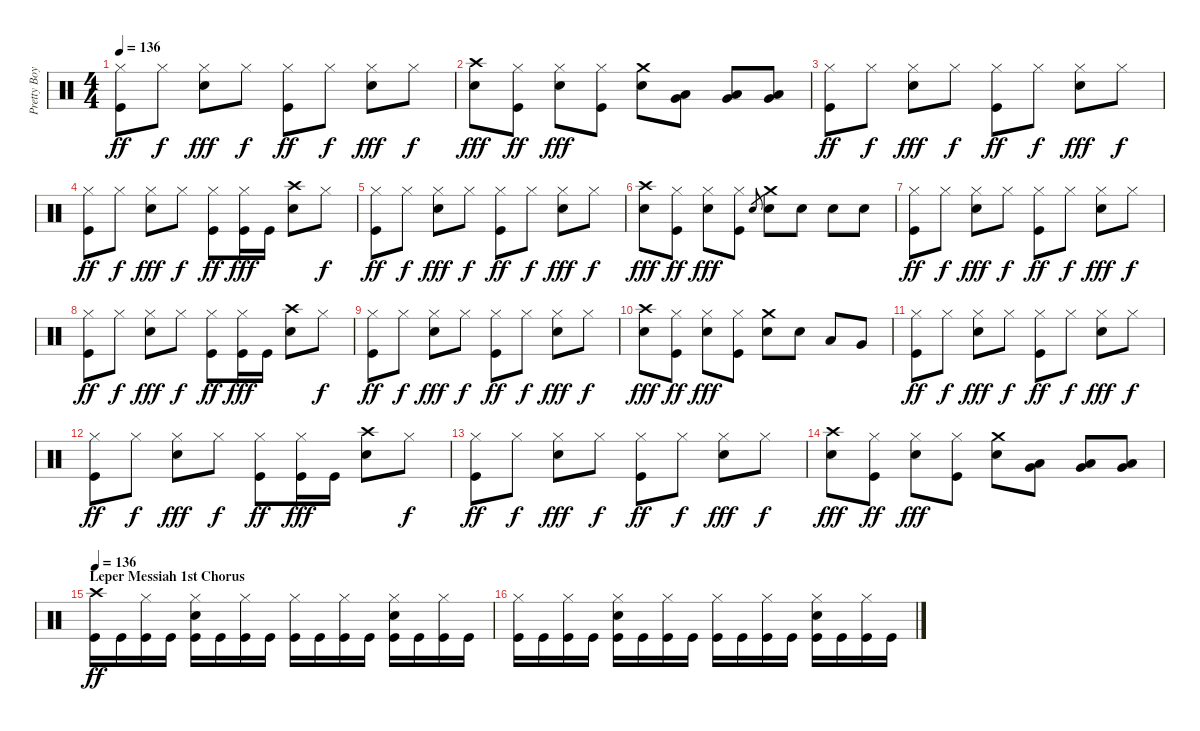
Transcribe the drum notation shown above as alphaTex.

\track ("Pretty Boy Geoff (Lars Drums)" "Pretty Boy") {instrument percussion}
\staff {score}
\articulation defaults
\ts (4 4)
\tempo 136
\clef neutral
\ks c
("Hi-Hat (closed)" "Kick (hit)").8{dy ff} "Hi-Hat (closed)".8{dy f} ("Hi-Hat (closed)" "Electric Snare (hit)").8{dy fff} "Hi-Hat (closed)".8{dy f} ("Hi-Hat (closed)" "Kick (hit)").8{dy ff} "Hi-Hat (closed)".8{dy f} ("Hi-Hat (closed)" "Electric Snare (hit)").8{dy fff} "Hi-Hat (closed)".8{dy f} |
("Crash high (hit)" "Electric Snare (hit)").8{dy fff} ("Hi-Hat (closed)" "Kick (hit)").8{dy ff} ("Hi-Hat (closed)" "Electric Snare (hit)").8{dy fff} ("Hi-Hat (closed)" "Kick (hit)").8 ("Crash medium (hit)" "Electric Snare (hit)").8 ("Low Tom (hit)" "Very Low Tom (hit)").8 ("Low Tom (hit)" "Very Low Tom (hit)").8 ("Low Tom (hit)" "Very Low Tom (hit)").8 |
("Hi-Hat (closed)" "Kick (hit)").8{dy ff} "Hi-Hat (closed)".8{dy f} ("Hi-Hat (closed)" "Electric Snare (hit)").8{dy fff} "Hi-Hat (closed)".8{dy f} ("Hi-Hat (closed)" "Kick (hit)").8{dy ff} "Hi-Hat (closed)".8{dy f} ("Hi-Hat (closed)" "Electric Snare (hit)").8{dy fff} "Hi-Hat (closed)".8{dy f} |
("Hi-Hat (closed)" "Kick (hit)").8{dy ff} "Hi-Hat (closed)".8{dy f} ("Hi-Hat (closed)" "Electric Snare (hit)").8{dy fff} "Hi-Hat (closed)".8{dy f} ("Hi-Hat (closed)" "Kick (hit)").8{dy ff} ("Hi-Hat (closed)" "Kick (hit)").16{dy fff} "Kick (hit)".16 ("Crash high (hit)" "Electric Snare (hit)").8 "Hi-Hat (closed)".8{dy f} |
("Hi-Hat (closed)" "Kick (hit)").8{dy ff} "Hi-Hat (closed)".8{dy f} ("Hi-Hat (closed)" "Electric Snare (hit)").8{dy fff} "Hi-Hat (closed)".8{dy f} ("Hi-Hat (closed)" "Kick (hit)").8{dy ff} "Hi-Hat (closed)".8{dy f} ("Hi-Hat (closed)" "Electric Snare (hit)").8{dy fff} "Hi-Hat (closed)".8{dy f} |
("Crash high (hit)" "Electric Snare (hit)").8{dy fff} ("Hi-Hat (closed)" "Kick (hit)").8{dy ff} ("Hi-Hat (closed)" "Electric Snare (hit)").8{dy fff} ("Hi-Hat (closed)" "Kick (hit)").8 "Electric Snare (hit)".8{gr} ("Crash medium (hit)" "Electric Snare (hit)").8 "Electric Snare (hit)".8 "Electric Snare (hit)".8 "Electric Snare (hit)".8 |
("Hi-Hat (closed)" "Kick (hit)").8{dy ff} "Hi-Hat (closed)".8{dy f} ("Hi-Hat (closed)" "Electric Snare (hit)").8{dy fff} "Hi-Hat (closed)".8{dy f} ("Hi-Hat (closed)" "Kick (hit)").8{dy ff} "Hi-Hat (closed)".8{dy f} ("Hi-Hat (closed)" "Electric Snare (hit)").8{dy fff} "Hi-Hat (closed)".8{dy f} |
("Hi-Hat (closed)" "Kick (hit)").8{dy ff} "Hi-Hat (closed)".8{dy f} ("Hi-Hat (closed)" "Electric Snare (hit)").8{dy fff} "Hi-Hat (closed)".8{dy f} ("Hi-Hat (closed)" "Kick (hit)").8{dy ff} ("Hi-Hat (closed)" "Kick (hit)").16{dy fff} "Kick (hit)".16 ("Crash high (hit)" "Electric Snare (hit)").8 "Hi-Hat (closed)".8{dy f} |
("Hi-Hat (closed)" "Kick (hit)").8{dy ff} "Hi-Hat (closed)".8{dy f} ("Hi-Hat (closed)" "Electric Snare (hit)").8{dy fff} "Hi-Hat (closed)".8{dy f} ("Hi-Hat (closed)" "Kick (hit)").8{dy ff} "Hi-Hat (closed)".8{dy f} ("Hi-Hat (closed)" "Electric Snare (hit)").8{dy fff} "Hi-Hat (closed)".8{dy f} |
("Crash high (hit)" "Electric Snare (hit)").8{dy fff} ("Hi-Hat (closed)" "Kick (hit)").8{dy ff} ("Hi-Hat (closed)" "Electric Snare (hit)").8{dy fff} ("Hi-Hat (closed)" "Kick (hit)").8 ("Crash medium (hit)" "Electric Snare (hit)").8 "Electric Snare (hit)".8 "Low Tom (hit)".8 "Very Low Tom (hit)".8 |
("Hi-Hat (closed)" "Kick (hit)").8{dy ff} "Hi-Hat (closed)".8{dy f} ("Hi-Hat (closed)" "Electric Snare (hit)").8{dy fff} "Hi-Hat (closed)".8{dy f} ("Hi-Hat (closed)" "Kick (hit)").8{dy ff} "Hi-Hat (closed)".8{dy f} ("Hi-Hat (closed)" "Electric Snare (hit)").8{dy fff} "Hi-Hat (closed)".8{dy f} |
("Hi-Hat (closed)" "Kick (hit)").8{dy ff} "Hi-Hat (closed)".8{dy f} ("Hi-Hat (closed)" "Electric Snare (hit)").8{dy fff} "Hi-Hat (closed)".8{dy f} ("Hi-Hat (closed)" "Kick (hit)").8{dy ff} ("Hi-Hat (closed)" "Kick (hit)").16{dy fff} "Kick (hit)".16 ("Crash high (hit)" "Electric Snare (hit)").8 "Hi-Hat (closed)".8{dy f} |
("Hi-Hat (closed)" "Kick (hit)").8{dy ff} "Hi-Hat (closed)".8{dy f} ("Hi-Hat (closed)" "Electric Snare (hit)").8{dy fff} "Hi-Hat (closed)".8{dy f} ("Hi-Hat (closed)" "Kick (hit)").8{dy ff} "Hi-Hat (closed)".8{dy f} ("Hi-Hat (closed)" "Electric Snare (hit)").8{dy fff} "Hi-Hat (closed)".8{dy f} |
("Crash high (hit)" "Electric Snare (hit)").8{dy fff} ("Hi-Hat (closed)" "Kick (hit)").8{dy ff} ("Hi-Hat (closed)" "Electric Snare (hit)").8{dy fff} ("Hi-Hat (closed)" "Kick (hit)").8 ("Crash medium (hit)" "Electric Snare (hit)").8 ("Low Tom (hit)" "Very Low Tom (hit)").8 ("Low Tom (hit)" "Very Low Tom (hit)").8 ("Low Tom (hit)" "Very Low Tom (hit)").8 |
\section ("" "Leper Messiah 1st Chorus")
\tempo 136
("Crash high (hit)" "Kick (hit)").16{dy ff} "Kick (hit)".16 ("Hi-Hat (closed)" "Kick (hit)").16 "Kick (hit)".16 ("Hi-Hat (closed)" "Electric Snare (hit)" "Kick (hit)").16 "Kick (hit)".16 ("Hi-Hat (closed)" "Kick (hit)").16 "Kick (hit)".16 ("Hi-Hat (closed)" "Kick (hit)").16 "Kick (hit)".16 ("Hi-Hat (closed)" "Kick (hit)").16 "Kick (hit)".16 ("Hi-Hat (closed)" "Electric Snare (hit)" "Kick (hit)").16 "Kick (hit)".16 ("Hi-Hat (closed)" "Kick (hit)").16 "Kick (hit)".16 |
("Hi-Hat (closed)" "Kick (hit)").16 "Kick (hit)".16 ("Hi-Hat (closed)" "Kick (hit)").16 "Kick (hit)".16 ("Hi-Hat (closed)" "Electric Snare (hit)" "Kick (hit)").16 "Kick (hit)".16 ("Hi-Hat (closed)" "Kick (hit)").16 "Kick (hit)".16 ("Hi-Hat (closed)" "Kick (hit)").16 "Kick (hit)".16 ("Hi-Hat (closed)" "Kick (hit)").16 "Kick (hit)".16 ("Hi-Hat (closed)" "Electric Snare (hit)" "Kick (hit)").16 "Kick (hit)".16 ("Hi-Hat (closed)" "Kick (hit)").16 "Kick (hit)".16
